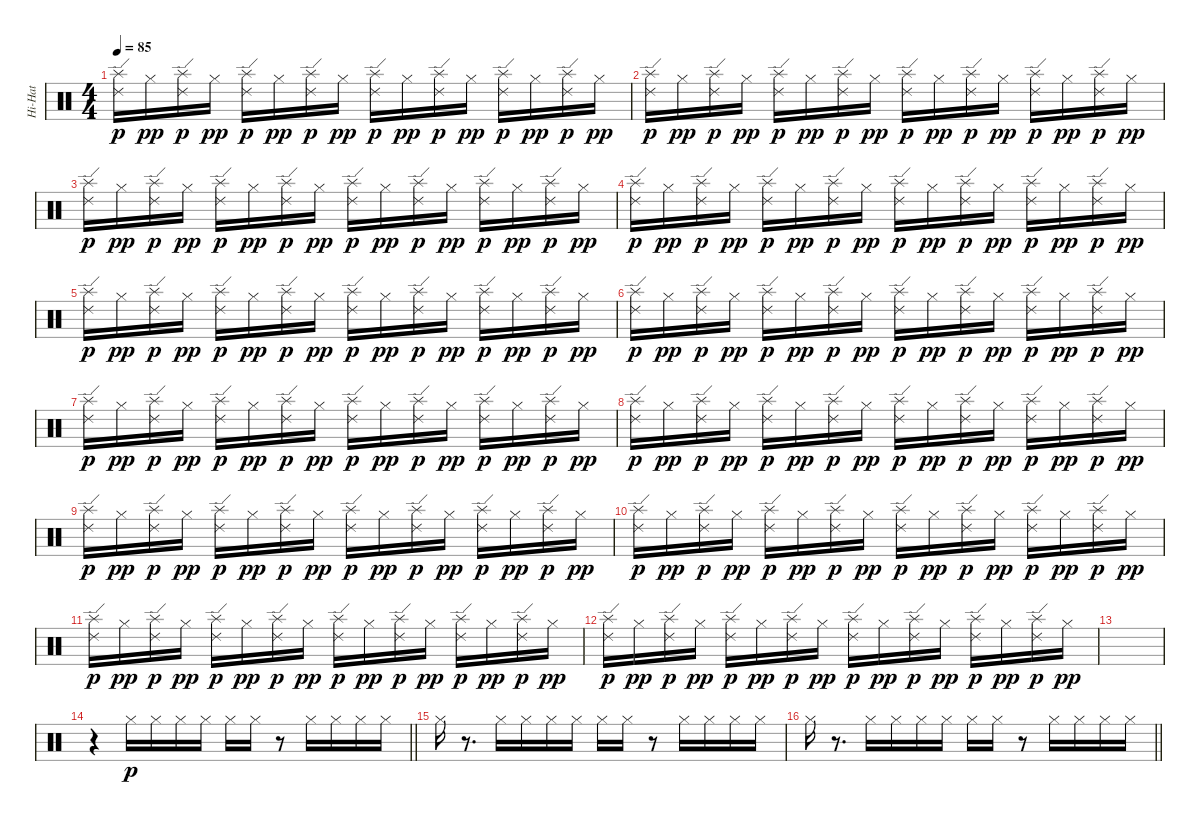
\track ("Hi-Hat" "Hi-Hat") {instrument percussion}
\staff {score}
\articulation defaults
\ts (4 4)
\tempo 85
\clef neutral
\ks c
("Ride (edge) 2" "Splash (hit)").16{dy p} "Hi-Hat (closed)".16{dy pp} ("Ride (edge) 2" "Splash (hit)").16{dy p} "Hi-Hat (closed)".16{dy pp} ("Ride (edge) 2" "Splash (hit)").16{dy p} "Hi-Hat (closed)".16{dy pp} ("Ride (edge) 2" "Splash (hit)").16{dy p} "Hi-Hat (closed)".16{dy pp} ("Ride (edge) 2" "Splash (hit)").16{dy p} "Hi-Hat (closed)".16{dy pp} ("Ride (edge) 2" "Splash (hit)").16{dy p} "Hi-Hat (closed)".16{dy pp} ("Ride (edge) 2" "Splash (hit)").16{dy p} "Hi-Hat (closed)".16{dy pp} ("Ride (edge) 2" "Splash (hit)").16{dy p} "Hi-Hat (closed)".16{dy pp} |
("Ride (edge) 2" "Splash (hit)").16{dy p} "Hi-Hat (closed)".16{dy pp} ("Ride (edge) 2" "Splash (hit)").16{dy p} "Hi-Hat (closed)".16{dy pp} ("Ride (edge) 2" "Splash (hit)").16{dy p} "Hi-Hat (closed)".16{dy pp} ("Ride (edge) 2" "Splash (hit)").16{dy p} "Hi-Hat (closed)".16{dy pp} ("Ride (edge) 2" "Splash (hit)").16{dy p} "Hi-Hat (closed)".16{dy pp} ("Ride (edge) 2" "Splash (hit)").16{dy p} "Hi-Hat (closed)".16{dy pp} ("Ride (edge) 2" "Splash (hit)").16{dy p} "Hi-Hat (closed)".16{dy pp} ("Ride (edge) 2" "Splash (hit)").16{dy p} "Hi-Hat (closed)".16{dy pp} |
("Ride (edge) 2" "Splash (hit)").16{dy p} "Hi-Hat (closed)".16{dy pp} ("Ride (edge) 2" "Splash (hit)").16{dy p} "Hi-Hat (closed)".16{dy pp} ("Ride (edge) 2" "Splash (hit)").16{dy p} "Hi-Hat (closed)".16{dy pp} ("Ride (edge) 2" "Splash (hit)").16{dy p} "Hi-Hat (closed)".16{dy pp} ("Ride (edge) 2" "Splash (hit)").16{dy p} "Hi-Hat (closed)".16{dy pp} ("Ride (edge) 2" "Splash (hit)").16{dy p} "Hi-Hat (closed)".16{dy pp} ("Ride (edge) 2" "Splash (hit)").16{dy p} "Hi-Hat (closed)".16{dy pp} ("Ride (edge) 2" "Splash (hit)").16{dy p} "Hi-Hat (closed)".16{dy pp} |
("Ride (edge) 2" "Splash (hit)").16{dy p} "Hi-Hat (closed)".16{dy pp} ("Ride (edge) 2" "Splash (hit)").16{dy p} "Hi-Hat (closed)".16{dy pp} ("Ride (edge) 2" "Splash (hit)").16{dy p} "Hi-Hat (closed)".16{dy pp} ("Ride (edge) 2" "Splash (hit)").16{dy p} "Hi-Hat (closed)".16{dy pp} ("Ride (edge) 2" "Splash (hit)").16{dy p} "Hi-Hat (closed)".16{dy pp} ("Ride (edge) 2" "Splash (hit)").16{dy p} "Hi-Hat (closed)".16{dy pp} ("Ride (edge) 2" "Splash (hit)").16{dy p} "Hi-Hat (closed)".16{dy pp} ("Ride (edge) 2" "Splash (hit)").16{dy p} "Hi-Hat (closed)".16{dy pp} |
("Ride (edge) 2" "Splash (hit)").16{dy p} "Hi-Hat (closed)".16{dy pp} ("Ride (edge) 2" "Splash (hit)").16{dy p} "Hi-Hat (closed)".16{dy pp} ("Ride (edge) 2" "Splash (hit)").16{dy p} "Hi-Hat (closed)".16{dy pp} ("Ride (edge) 2" "Splash (hit)").16{dy p} "Hi-Hat (closed)".16{dy pp} ("Ride (edge) 2" "Splash (hit)").16{dy p} "Hi-Hat (closed)".16{dy pp} ("Ride (edge) 2" "Splash (hit)").16{dy p} "Hi-Hat (closed)".16{dy pp} ("Ride (edge) 2" "Splash (hit)").16{dy p} "Hi-Hat (closed)".16{dy pp} ("Ride (edge) 2" "Splash (hit)").16{dy p} "Hi-Hat (closed)".16{dy pp} |
("Ride (edge) 2" "Splash (hit)").16{dy p} "Hi-Hat (closed)".16{dy pp} ("Ride (edge) 2" "Splash (hit)").16{dy p} "Hi-Hat (closed)".16{dy pp} ("Ride (edge) 2" "Splash (hit)").16{dy p} "Hi-Hat (closed)".16{dy pp} ("Ride (edge) 2" "Splash (hit)").16{dy p} "Hi-Hat (closed)".16{dy pp} ("Ride (edge) 2" "Splash (hit)").16{dy p} "Hi-Hat (closed)".16{dy pp} ("Ride (edge) 2" "Splash (hit)").16{dy p} "Hi-Hat (closed)".16{dy pp} ("Ride (edge) 2" "Splash (hit)").16{dy p} "Hi-Hat (closed)".16{dy pp} ("Ride (edge) 2" "Splash (hit)").16{dy p} "Hi-Hat (closed)".16{dy pp} |
("Ride (edge) 2" "Splash (hit)").16{dy p} "Hi-Hat (closed)".16{dy pp} ("Ride (edge) 2" "Splash (hit)").16{dy p} "Hi-Hat (closed)".16{dy pp} ("Ride (edge) 2" "Splash (hit)").16{dy p} "Hi-Hat (closed)".16{dy pp} ("Ride (edge) 2" "Splash (hit)").16{dy p} "Hi-Hat (closed)".16{dy pp} ("Ride (edge) 2" "Splash (hit)").16{dy p} "Hi-Hat (closed)".16{dy pp} ("Ride (edge) 2" "Splash (hit)").16{dy p} "Hi-Hat (closed)".16{dy pp} ("Ride (edge) 2" "Splash (hit)").16{dy p} "Hi-Hat (closed)".16{dy pp} ("Ride (edge) 2" "Splash (hit)").16{dy p} "Hi-Hat (closed)".16{dy pp} |
("Ride (edge) 2" "Splash (hit)").16{dy p} "Hi-Hat (closed)".16{dy pp} ("Ride (edge) 2" "Splash (hit)").16{dy p} "Hi-Hat (closed)".16{dy pp} ("Ride (edge) 2" "Splash (hit)").16{dy p} "Hi-Hat (closed)".16{dy pp} ("Ride (edge) 2" "Splash (hit)").16{dy p} "Hi-Hat (closed)".16{dy pp} ("Ride (edge) 2" "Splash (hit)").16{dy p} "Hi-Hat (closed)".16{dy pp} ("Ride (edge) 2" "Splash (hit)").16{dy p} "Hi-Hat (closed)".16{dy pp} ("Ride (edge) 2" "Splash (hit)").16{dy p} "Hi-Hat (closed)".16{dy pp} ("Ride (edge) 2" "Splash (hit)").16{dy p} "Hi-Hat (closed)".16{dy pp} |
("Ride (edge) 2" "Splash (hit)").16{dy p} "Hi-Hat (closed)".16{dy pp} ("Ride (edge) 2" "Splash (hit)").16{dy p} "Hi-Hat (closed)".16{dy pp} ("Ride (edge) 2" "Splash (hit)").16{dy p} "Hi-Hat (closed)".16{dy pp} ("Ride (edge) 2" "Splash (hit)").16{dy p} "Hi-Hat (closed)".16{dy pp} ("Ride (edge) 2" "Splash (hit)").16{dy p} "Hi-Hat (closed)".16{dy pp} ("Ride (edge) 2" "Splash (hit)").16{dy p} "Hi-Hat (closed)".16{dy pp} ("Ride (edge) 2" "Splash (hit)").16{dy p} "Hi-Hat (closed)".16{dy pp} ("Ride (edge) 2" "Splash (hit)").16{dy p} "Hi-Hat (closed)".16{dy pp} |
("Ride (edge) 2" "Splash (hit)").16{dy p} "Hi-Hat (closed)".16{dy pp} ("Ride (edge) 2" "Splash (hit)").16{dy p} "Hi-Hat (closed)".16{dy pp} ("Ride (edge) 2" "Splash (hit)").16{dy p} "Hi-Hat (closed)".16{dy pp} ("Ride (edge) 2" "Splash (hit)").16{dy p} "Hi-Hat (closed)".16{dy pp} ("Ride (edge) 2" "Splash (hit)").16{dy p} "Hi-Hat (closed)".16{dy pp} ("Ride (edge) 2" "Splash (hit)").16{dy p} "Hi-Hat (closed)".16{dy pp} ("Ride (edge) 2" "Splash (hit)").16{dy p} "Hi-Hat (closed)".16{dy pp} ("Ride (edge) 2" "Splash (hit)").16{dy p} "Hi-Hat (closed)".16{dy pp} |
("Ride (edge) 2" "Splash (hit)").16{dy p} "Hi-Hat (closed)".16{dy pp} ("Ride (edge) 2" "Splash (hit)").16{dy p} "Hi-Hat (closed)".16{dy pp} ("Ride (edge) 2" "Splash (hit)").16{dy p} "Hi-Hat (closed)".16{dy pp} ("Ride (edge) 2" "Splash (hit)").16{dy p} "Hi-Hat (closed)".16{dy pp} ("Ride (edge) 2" "Splash (hit)").16{dy p} "Hi-Hat (closed)".16{dy pp} ("Ride (edge) 2" "Splash (hit)").16{dy p} "Hi-Hat (closed)".16{dy pp} ("Ride (edge) 2" "Splash (hit)").16{dy p} "Hi-Hat (closed)".16{dy pp} ("Ride (edge) 2" "Splash (hit)").16{dy p} "Hi-Hat (closed)".16{dy pp} |
("Ride (edge) 2" "Splash (hit)").16{dy p} "Hi-Hat (closed)".16{dy pp} ("Ride (edge) 2" "Splash (hit)").16{dy p} "Hi-Hat (closed)".16{dy pp} ("Ride (edge) 2" "Splash (hit)").16{dy p} "Hi-Hat (closed)".16{dy pp} ("Ride (edge) 2" "Splash (hit)").16{dy p} "Hi-Hat (closed)".16{dy pp} ("Ride (edge) 2" "Splash (hit)").16{dy p} "Hi-Hat (closed)".16{dy pp} ("Ride (edge) 2" "Splash (hit)").16{dy p} "Hi-Hat (closed)".16{dy pp} ("Ride (edge) 2" "Splash (hit)").16{dy p} "Hi-Hat (closed)".16{dy pp} ("Ride (edge) 2" "Splash (hit)").16{dy p} "Hi-Hat (closed)".16{dy pp} |
|
\barLineRight lightlight
r.4 "Hi-Hat (closed)".16{dy p} "Hi-Hat (closed)".16 "Hi-Hat (closed)".16 "Hi-Hat (closed)".16 "Hi-Hat (closed)".16 "Hi-Hat (closed)".16 r.8 "Hi-Hat (closed)".16 "Hi-Hat (closed)".16 "Hi-Hat (closed)".16 "Hi-Hat (closed)".16 |
"Hi-Hat (closed)".16 r.8{d} "Hi-Hat (closed)".16 "Hi-Hat (closed)".16 "Hi-Hat (closed)".16 "Hi-Hat (closed)".16 "Hi-Hat (closed)".16 "Hi-Hat (closed)".16 r.8 "Hi-Hat (closed)".16 "Hi-Hat (closed)".16 "Hi-Hat (closed)".16 "Hi-Hat (closed)".16 |
\barLineRight lightlight "Hi-Hat (closed)".16
r.8{d} "Hi-Hat (closed)".16 "Hi-Hat (closed)".16 "Hi-Hat (closed)".16 "Hi-Hat (closed)".16 "Hi-Hat (closed)".16 "Hi-Hat (closed)".16 r.8 "Hi-Hat (closed)".16 "Hi-Hat (closed)".16 "Hi-Hat (closed)".16 "Hi-Hat (closed)".16
